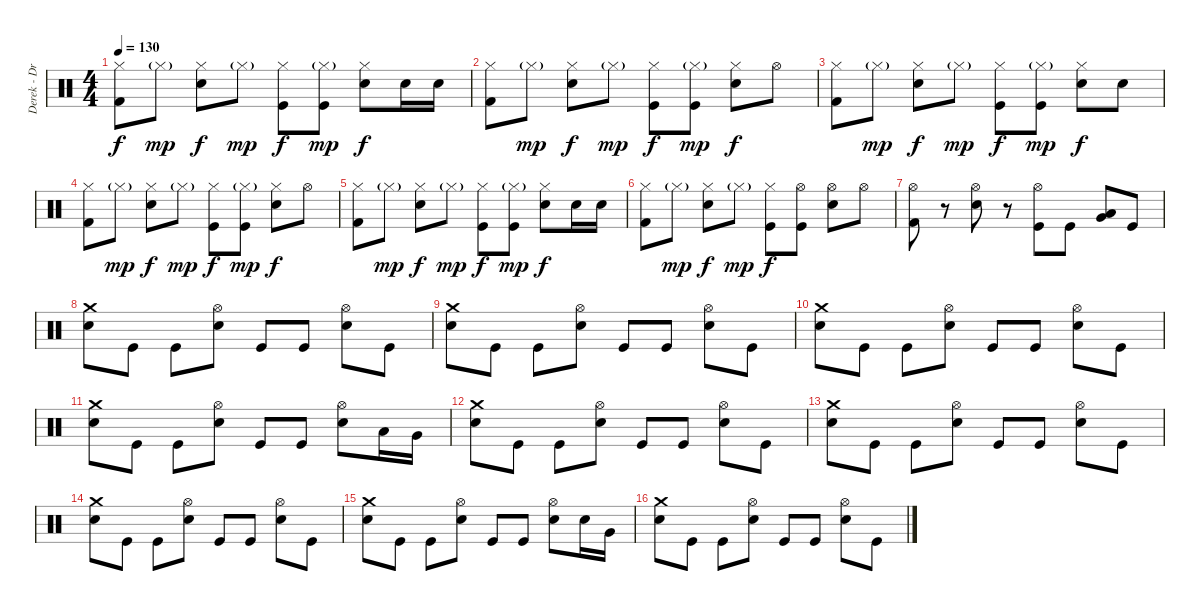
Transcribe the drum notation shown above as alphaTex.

\track ("Derek - Drums" "Derek - Dr") {instrument percussion}
\staff {score}
\articulation defaults
\ts (4 4)
\tempo 130
\clef neutral
\ks c
("Hi-Hat (closed)" "Kick (hit) 2").8{dy f} "Hi-Hat (closed)"{g}.8{dy mp} ("Hi-Hat (closed)" "Electric Snare (hit)").8{dy f} "Hi-Hat (closed)"{g}.8{dy mp} ("Hi-Hat (closed)" "Kick (hit)").8{dy f} ("Hi-Hat (closed)"{g} "Kick (hit)").8{dy mp} ("Hi-Hat (closed)" "Electric Snare (hit)").8{dy f} "Electric Snare (hit)".16 "Electric Snare (hit)".16 |
("Hi-Hat (closed)" "Kick (hit) 2").8 "Hi-Hat (closed)"{g}.8{dy mp} ("Hi-Hat (closed)" "Electric Snare (hit)").8{dy f} "Hi-Hat (closed)"{g}.8{dy mp} ("Hi-Hat (closed)" "Kick (hit)").8{dy f} ("Hi-Hat (closed)"{g} "Kick (hit)").8{dy mp} ("Hi-Hat (closed)" "Electric Snare (hit)").8{dy f} "Hi-Hat (open)".8 |
("Hi-Hat (closed)" "Kick (hit) 2").8 "Hi-Hat (closed)"{g}.8{dy mp} ("Hi-Hat (closed)" "Electric Snare (hit)").8{dy f} "Hi-Hat (closed)"{g}.8{dy mp} ("Hi-Hat (closed)" "Kick (hit)").8{dy f} ("Hi-Hat (closed)"{g} "Kick (hit)").8{dy mp} ("Hi-Hat (closed)" "Electric Snare (hit)").8{dy f} "Electric Snare (hit)".8 |
("Hi-Hat (closed)" "Kick (hit) 2").8 "Hi-Hat (closed)"{g}.8{dy mp} ("Hi-Hat (closed)" "Electric Snare (hit)").8{dy f} "Hi-Hat (closed)"{g}.8{dy mp} ("Hi-Hat (closed)" "Kick (hit)").8{dy f} ("Hi-Hat (closed)"{g} "Kick (hit)").8{dy mp} ("Hi-Hat (closed)" "Electric Snare (hit)").8{dy f} "Hi-Hat (open)".8 |
("Hi-Hat (closed)" "Kick (hit) 2").8 "Hi-Hat (closed)"{g}.8{dy mp} ("Hi-Hat (closed)" "Electric Snare (hit)").8{dy f} "Hi-Hat (closed)"{g}.8{dy mp} ("Hi-Hat (closed)" "Kick (hit)").8{dy f} ("Hi-Hat (closed)"{g} "Kick (hit)").8{dy mp} ("Hi-Hat (closed)" "Electric Snare (hit)").8{dy f} "Electric Snare (hit)".16 "Electric Snare (hit)".16 |
("Hi-Hat (closed)" "Kick (hit) 2").8 "Hi-Hat (closed)"{g}.8{dy mp} ("Hi-Hat (closed)" "Electric Snare (hit)").8{dy f} "Hi-Hat (closed)"{g}.8{dy mp} ("Hi-Hat (closed)" "Kick (hit)").8{dy f} ("Hi-Hat (open)" "Kick (hit)").8 ("Hi-Hat (open)" "Electric Snare (hit)").8 "Hi-Hat (open)".8 |
("Hi-Hat (open)" "Kick (hit) 2").8 r.8 ("Hi-Hat (open)" "Electric Snare (hit)").8 r.8 ("Hi-Hat (open)" "Kick (hit)").8 "Kick (hit)".8 ("Very Low Tom (hit)" "Low Floor Tom (hit)").8 "Kick (hit)".8 |
("Crash medium (hit)" "Electric Snare (hit)").8 "Kick (hit)".8 "Kick (hit)".8 ("Hi-Hat (open)" "Electric Snare (hit)").8 "Kick (hit)".8 "Kick (hit)".8 ("Hi-Hat (open)" "Electric Snare (hit)").8 "Kick (hit)".8 |
("Crash medium (hit)" "Electric Snare (hit)").8 "Kick (hit)".8 "Kick (hit)".8 ("Hi-Hat (open)" "Electric Snare (hit)").8 "Kick (hit)".8 "Kick (hit)".8 ("Hi-Hat (open)" "Electric Snare (hit)").8 "Kick (hit)".8 |
("Crash medium (hit)" "Electric Snare (hit)").8 "Kick (hit)".8 "Kick (hit)".8 ("Hi-Hat (open)" "Electric Snare (hit)").8 "Kick (hit)".8 "Kick (hit)".8 ("Hi-Hat (open)" "Electric Snare (hit)").8 "Kick (hit)".8 |
("Crash medium (hit)" "Electric Snare (hit)").8 "Kick (hit)".8 "Kick (hit)".8 ("Hi-Hat (open)" "Electric Snare (hit)").8 "Kick (hit)".8 "Kick (hit)".8 ("Hi-Hat (open)" "Electric Snare (hit)").8 "Low Tom (hit)".16 "Very Low Tom (hit)".16 |
("Crash medium (hit)" "Electric Snare (hit)").8 "Kick (hit)".8 "Kick (hit)".8 ("Hi-Hat (open)" "Electric Snare (hit)").8 "Kick (hit)".8 "Kick (hit)".8 ("Hi-Hat (open)" "Electric Snare (hit)").8 "Kick (hit)".8 |
("Crash medium (hit)" "Electric Snare (hit)").8 "Kick (hit)".8 "Kick (hit)".8 ("Hi-Hat (open)" "Electric Snare (hit)").8 "Kick (hit)".8 "Kick (hit)".8 ("Hi-Hat (open)" "Electric Snare (hit)").8 "Kick (hit)".8 |
("Crash medium (hit)" "Electric Snare (hit)").8 "Kick (hit)".8 "Kick (hit)".8 ("Hi-Hat (open)" "Electric Snare (hit)").8 "Kick (hit)".8 "Kick (hit)".8 ("Hi-Hat (open)" "Electric Snare (hit)").8 "Kick (hit)".8 |
("Crash medium (hit)" "Electric Snare (hit)").8 "Kick (hit)".8 "Kick (hit)".8 ("Hi-Hat (open)" "Electric Snare (hit)").8 "Kick (hit)".8 "Kick (hit)".8 ("Hi-Hat (open)" "Electric Snare (hit)").8 "Electric Snare (hit)".16 "Very Low Tom (hit)".16 |
("Crash medium (hit)" "Electric Snare (hit)").8 "Kick (hit)".8 "Kick (hit)".8 ("Hi-Hat (open)" "Electric Snare (hit)").8 "Kick (hit)".8 "Kick (hit)".8 ("Hi-Hat (open)" "Electric Snare (hit)").8 "Kick (hit)".8
